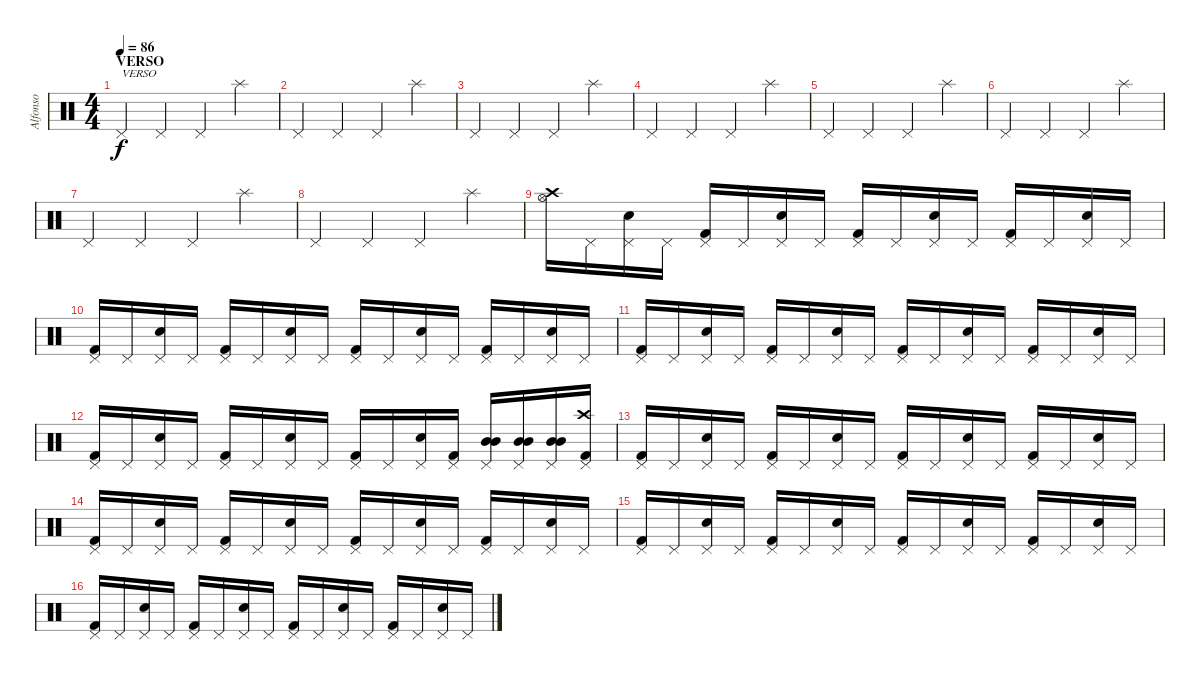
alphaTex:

\track ("Alfonso" "Alfonso") {instrument percussion}
\staff {score}
\articulation defaults
\ts (4 4)
\section ("" "VERSO")
\tempo 86
\clef neutral
\ks c "Pedal Hi-Hat (hit)".4{txt "VERSO" dy f} "Pedal Hi-Hat (hit)".4 "Pedal Hi-Hat (hit)".4 "Splash (hit)".4
|
"Pedal Hi-Hat (hit)".4 "Pedal Hi-Hat (hit)".4 "Pedal Hi-Hat (hit)".4 "Splash (hit)".4 |
"Pedal Hi-Hat (hit)".4 "Pedal Hi-Hat (hit)".4 "Pedal Hi-Hat (hit)".4 "Splash (hit)".4 |
"Pedal Hi-Hat (hit)".4 "Pedal Hi-Hat (hit)".4 "Pedal Hi-Hat (hit)".4 "Splash (hit)".4 |
"Pedal Hi-Hat (hit)".4 "Pedal Hi-Hat (hit)".4 "Pedal Hi-Hat (hit)".4 "Splash (hit)".4 |
"Pedal Hi-Hat (hit)".4 "Pedal Hi-Hat (hit)".4 "Pedal Hi-Hat (hit)".4 "Splash (hit)".4 |
"Pedal Hi-Hat (hit)".4 "Pedal Hi-Hat (hit)".4 "Pedal Hi-Hat (hit)".4 "Splash (hit)".4 |
"Pedal Hi-Hat (hit)".4{volume 16} "Pedal Hi-Hat (hit)".4 "Pedal Hi-Hat (hit)".4 "Splash (hit)".4 |
("Hi-Hat (open)" "Crash high (hit)").16 "Pedal Hi-Hat (hit)".16 ("Pedal Hi-Hat (hit)" "Electric Snare (hit)").16 "Pedal Hi-Hat (hit)".16 ("Pedal Hi-Hat (hit)" "Kick (hit) 2").16 "Pedal Hi-Hat (hit)".16 ("Pedal Hi-Hat (hit)" "Electric Snare (hit)").16 "Pedal Hi-Hat (hit)".16 ("Pedal Hi-Hat (hit)" "Kick (hit) 2").16 "Pedal Hi-Hat (hit)".16 ("Pedal Hi-Hat (hit)" "Electric Snare (hit)").16 "Pedal Hi-Hat (hit)".16 ("Pedal Hi-Hat (hit)" "Kick (hit) 2").16 "Pedal Hi-Hat (hit)".16 ("Pedal Hi-Hat (hit)" "Electric Snare (hit)").16 "Pedal Hi-Hat (hit)".16 |
("Pedal Hi-Hat (hit)" "Kick (hit) 2").16 "Pedal Hi-Hat (hit)".16 ("Pedal Hi-Hat (hit)" "Electric Snare (hit)").16 "Pedal Hi-Hat (hit)".16 ("Pedal Hi-Hat (hit)" "Kick (hit) 2").16 "Pedal Hi-Hat (hit)".16 ("Pedal Hi-Hat (hit)" "Electric Snare (hit)").16 "Pedal Hi-Hat (hit)".16 ("Pedal Hi-Hat (hit)" "Kick (hit) 2").16 "Pedal Hi-Hat (hit)".16 ("Pedal Hi-Hat (hit)" "Electric Snare (hit)").16 "Pedal Hi-Hat (hit)".16 ("Pedal Hi-Hat (hit)" "Kick (hit) 2").16 "Pedal Hi-Hat (hit)".16 ("Pedal Hi-Hat (hit)" "Electric Snare (hit)").16 "Pedal Hi-Hat (hit)".16 |
("Pedal Hi-Hat (hit)" "Kick (hit) 2").16 "Pedal Hi-Hat (hit)".16 ("Pedal Hi-Hat (hit)" "Electric Snare (hit)").16 "Pedal Hi-Hat (hit)".16 ("Pedal Hi-Hat (hit)" "Kick (hit) 2").16 "Pedal Hi-Hat (hit)".16 ("Pedal Hi-Hat (hit)" "Electric Snare (hit)").16 "Pedal Hi-Hat (hit)".16 ("Pedal Hi-Hat (hit)" "Kick (hit) 2").16 "Pedal Hi-Hat (hit)".16 ("Pedal Hi-Hat (hit)" "Electric Snare (hit)").16 "Pedal Hi-Hat (hit)".16 ("Pedal Hi-Hat (hit)" "Kick (hit) 2").16 "Pedal Hi-Hat (hit)".16 ("Pedal Hi-Hat (hit)" "Electric Snare (hit)").16 "Pedal Hi-Hat (hit)".16 |
("Pedal Hi-Hat (hit)" "Kick (hit) 2").16 "Pedal Hi-Hat (hit)".16 ("Pedal Hi-Hat (hit)" "Electric Snare (hit)").16 "Pedal Hi-Hat (hit)".16 ("Pedal Hi-Hat (hit)" "Kick (hit) 2").16 "Pedal Hi-Hat (hit)".16 ("Pedal Hi-Hat (hit)" "Electric Snare (hit)").16 "Pedal Hi-Hat (hit)".16 ("Pedal Hi-Hat (hit)" "Kick (hit) 2").16 "Pedal Hi-Hat (hit)".16 ("Pedal Hi-Hat (hit)" "Electric Snare (hit)").16 ("Pedal Hi-Hat (hit)" "Kick (hit) 2").16 ("Pedal Hi-Hat (hit)" "Mid Tom (hit)" "Mid Tom (hit)").16 ("Pedal Hi-Hat (hit)" "Mid Tom (hit)" "Mid Tom (hit)").16 ("Pedal Hi-Hat (hit)" "Mid Tom (hit)" "Mid Tom (hit)").16 ("Pedal Hi-Hat (hit)" "Crash high (hit)" "Kick (hit) 2").16 |
("Pedal Hi-Hat (hit)" "Kick (hit) 2").16 "Pedal Hi-Hat (hit)".16 ("Pedal Hi-Hat (hit)" "Electric Snare (hit)").16 "Pedal Hi-Hat (hit)".16 ("Pedal Hi-Hat (hit)" "Kick (hit) 2").16 "Pedal Hi-Hat (hit)".16 ("Pedal Hi-Hat (hit)" "Electric Snare (hit)").16 "Pedal Hi-Hat (hit)".16 ("Pedal Hi-Hat (hit)" "Kick (hit) 2").16 "Pedal Hi-Hat (hit)".16 ("Pedal Hi-Hat (hit)" "Electric Snare (hit)").16 "Pedal Hi-Hat (hit)".16 ("Pedal Hi-Hat (hit)" "Kick (hit) 2").16 "Pedal Hi-Hat (hit)".16 ("Pedal Hi-Hat (hit)" "Electric Snare (hit)").16 "Pedal Hi-Hat (hit)".16 |
("Pedal Hi-Hat (hit)" "Kick (hit) 2").16 "Pedal Hi-Hat (hit)".16 ("Pedal Hi-Hat (hit)" "Electric Snare (hit)").16 "Pedal Hi-Hat (hit)".16 ("Pedal Hi-Hat (hit)" "Kick (hit) 2").16 "Pedal Hi-Hat (hit)".16 ("Pedal Hi-Hat (hit)" "Electric Snare (hit)").16 "Pedal Hi-Hat (hit)".16 ("Pedal Hi-Hat (hit)" "Kick (hit) 2").16 "Pedal Hi-Hat (hit)".16 ("Pedal Hi-Hat (hit)" "Electric Snare (hit)").16 "Pedal Hi-Hat (hit)".16 ("Pedal Hi-Hat (hit)" "Kick (hit) 2").16 "Pedal Hi-Hat (hit)".16 ("Pedal Hi-Hat (hit)" "Electric Snare (hit)").16 "Pedal Hi-Hat (hit)".16 |
("Pedal Hi-Hat (hit)" "Kick (hit) 2").16 "Pedal Hi-Hat (hit)".16 ("Pedal Hi-Hat (hit)" "Electric Snare (hit)").16 "Pedal Hi-Hat (hit)".16 ("Pedal Hi-Hat (hit)" "Kick (hit) 2").16 "Pedal Hi-Hat (hit)".16 ("Pedal Hi-Hat (hit)" "Electric Snare (hit)").16 "Pedal Hi-Hat (hit)".16 ("Pedal Hi-Hat (hit)" "Kick (hit) 2").16 "Pedal Hi-Hat (hit)".16 ("Pedal Hi-Hat (hit)" "Electric Snare (hit)").16 "Pedal Hi-Hat (hit)".16 ("Pedal Hi-Hat (hit)" "Kick (hit) 2").16 "Pedal Hi-Hat (hit)".16 ("Pedal Hi-Hat (hit)" "Electric Snare (hit)").16 "Pedal Hi-Hat (hit)".16 |
("Pedal Hi-Hat (hit)" "Kick (hit) 2").16 "Pedal Hi-Hat (hit)".16 ("Pedal Hi-Hat (hit)" "Electric Snare (hit)").16 "Pedal Hi-Hat (hit)".16 ("Pedal Hi-Hat (hit)" "Kick (hit) 2").16 "Pedal Hi-Hat (hit)".16 ("Pedal Hi-Hat (hit)" "Electric Snare (hit)").16 "Pedal Hi-Hat (hit)".16 ("Pedal Hi-Hat (hit)" "Kick (hit) 2").16 "Pedal Hi-Hat (hit)".16 ("Pedal Hi-Hat (hit)" "Electric Snare (hit)").16 "Pedal Hi-Hat (hit)".16 ("Pedal Hi-Hat (hit)" "Kick (hit) 2").16 "Pedal Hi-Hat (hit)".16 ("Pedal Hi-Hat (hit)" "Electric Snare (hit)").16 "Pedal Hi-Hat (hit)".16
